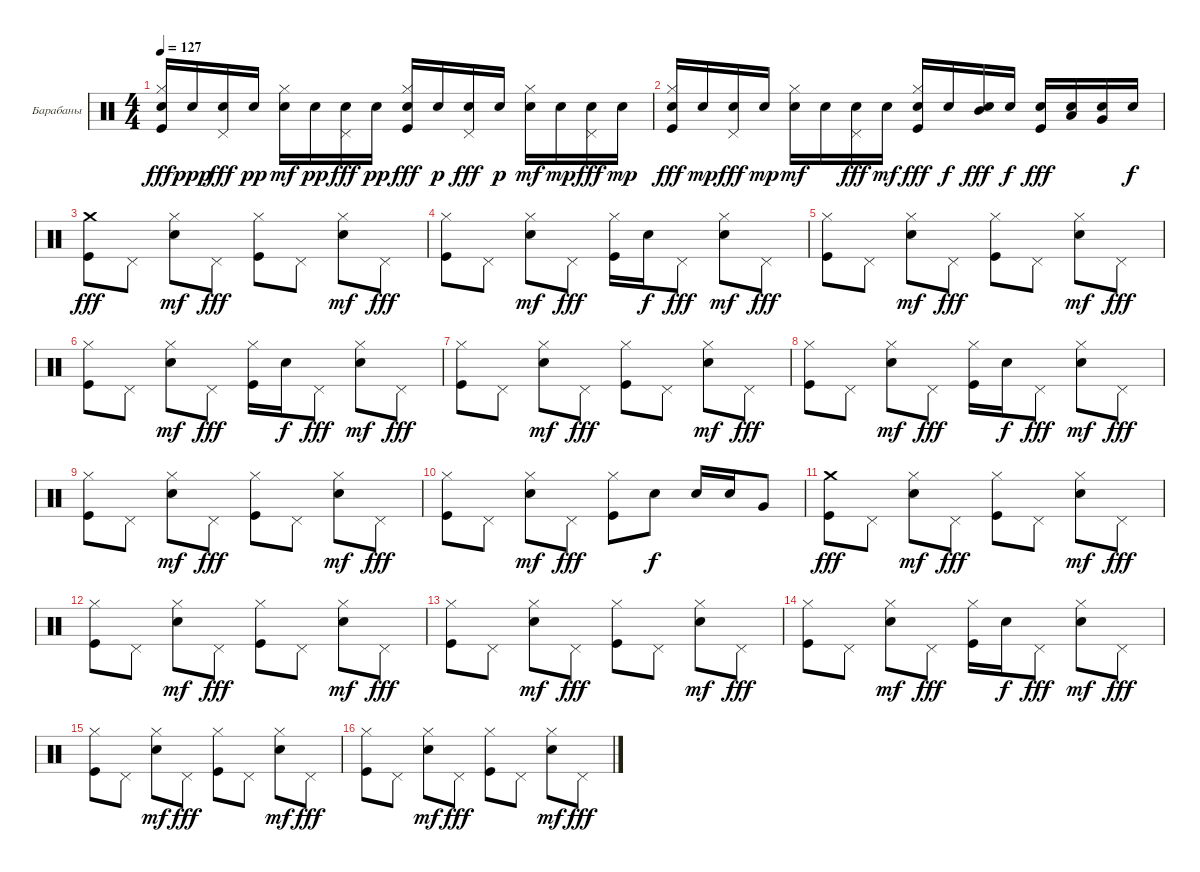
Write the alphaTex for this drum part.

\bracketExtendMode groupsimilarinstruments
\firstSystemTrackNameOrientation horizontal
\otherSystemsTrackNameOrientation horizontal
\track ("Ударные" "Барабаны") {instrument percussion}
\staff {score}
\articulation defaults
\ts (4 4)
\tempo 127
\clef neutral
\ks c
("Kick (hit)" "Hi-Hat (closed)" "Snare (hit) 2").16{dy fff} "Snare (hit) 2".16{dy ppp} ("Pedal Hi-Hat (hit)" "Snare (hit) 2").16{dy fff} "Snare (hit) 2".16{dy pp} ("Hi-Hat (closed)" "Snare (hit) 2").16{dy mf} "Snare (hit) 2".16{dy pp} ("Pedal Hi-Hat (hit)" "Snare (hit) 2").16{dy fff} "Snare (hit) 2".16{dy pp} ("Kick (hit)" "Hi-Hat (closed)" "Snare (hit) 2").16{dy fff} "Snare (hit) 2".16{dy p} ("Pedal Hi-Hat (hit)" "Snare (hit) 2").16{dy fff} "Snare (hit) 2".16{dy p} ("Hi-Hat (closed)" "Snare (hit) 2").16{dy mf} "Snare (hit) 2".16{dy mp} ("Pedal Hi-Hat (hit)" "Snare (hit) 2").16{dy fff} "Snare (hit) 2".16{dy mp} |
("Kick (hit)" "Hi-Hat (closed)" "Snare (hit) 2").16{dy fff} "Snare (hit) 2".16{dy mp} ("Pedal Hi-Hat (hit)" "Snare (hit) 2").16{dy fff} "Snare (hit) 2".16{dy mp} ("Hi-Hat (closed)" "Snare (hit) 2").16{dy mf} "Snare (hit) 2".16 ("Pedal Hi-Hat (hit)" "Snare (hit) 2").16{dy fff} "Snare (hit) 2".16{dy mf} ("Kick (hit)" "Hi-Hat (closed)" "Snare (hit) 2").16{dy fff} "Snare (hit) 2".16{dy f} ("Mid Tom (hit)" "Snare (hit) 2").16{dy fff} "Snare (hit) 2".16{dy f} ("Kick (hit)" "Snare (hit) 2").16{dy fff} ("Low Tom (hit)" "Snare (hit) 2").16 ("Very Low Tom (hit)" "Snare (hit) 2").16 "Snare (hit) 2".16{dy f} |
("Kick (hit)" "Crash medium (hit)").8{dy fff} "Pedal Hi-Hat (hit)".8 ("Hi-Hat (closed)" "Snare (hit) 2").8{dy mf} "Pedal Hi-Hat (hit)".8{dy fff} ("Kick (hit)" "Hi-Hat (closed)").8 "Pedal Hi-Hat (hit)".8 ("Hi-Hat (closed)" "Snare (hit) 2").8{dy mf} "Pedal Hi-Hat (hit)".8{dy fff} |
("Kick (hit)" "Hi-Hat (closed)").8 "Pedal Hi-Hat (hit)".8 ("Hi-Hat (closed)" "Snare (hit) 2").8{dy mf} "Pedal Hi-Hat (hit)".8{dy fff} ("Kick (hit)" "Hi-Hat (closed)").16 "Snare (hit) 2".16{dy f} "Pedal Hi-Hat (hit)".8{dy fff} ("Hi-Hat (closed)" "Snare (hit) 2").8{dy mf} "Pedal Hi-Hat (hit)".8{dy fff} |
("Kick (hit)" "Hi-Hat (closed)").8 "Pedal Hi-Hat (hit)".8 ("Hi-Hat (closed)" "Snare (hit) 2").8{dy mf} "Pedal Hi-Hat (hit)".8{dy fff} ("Kick (hit)" "Hi-Hat (closed)").8 "Pedal Hi-Hat (hit)".8 ("Hi-Hat (closed)" "Snare (hit) 2").8{dy mf} "Pedal Hi-Hat (hit)".8{dy fff} |
("Kick (hit)" "Hi-Hat (closed)").8 "Pedal Hi-Hat (hit)".8 ("Hi-Hat (closed)" "Snare (hit) 2").8{dy mf} "Pedal Hi-Hat (hit)".8{dy fff} ("Kick (hit)" "Hi-Hat (closed)").16 "Snare (hit) 2".16{dy f} "Pedal Hi-Hat (hit)".8{dy fff} ("Hi-Hat (closed)" "Snare (hit) 2").8{dy mf} "Pedal Hi-Hat (hit)".8{dy fff} |
("Kick (hit)" "Hi-Hat (closed)").8 "Pedal Hi-Hat (hit)".8 ("Hi-Hat (closed)" "Snare (hit) 2").8{dy mf} "Pedal Hi-Hat (hit)".8{dy fff} ("Kick (hit)" "Hi-Hat (closed)").8 "Pedal Hi-Hat (hit)".8 ("Hi-Hat (closed)" "Snare (hit) 2").8{dy mf} "Pedal Hi-Hat (hit)".8{dy fff} |
("Kick (hit)" "Hi-Hat (closed)").8 "Pedal Hi-Hat (hit)".8 ("Hi-Hat (closed)" "Snare (hit) 2").8{dy mf} "Pedal Hi-Hat (hit)".8{dy fff} ("Kick (hit)" "Hi-Hat (closed)").16 "Snare (hit) 2".16{dy f} "Pedal Hi-Hat (hit)".8{dy fff} ("Hi-Hat (closed)" "Snare (hit) 2").8{dy mf} "Pedal Hi-Hat (hit)".8{dy fff} |
("Kick (hit)" "Hi-Hat (closed)").8 "Pedal Hi-Hat (hit)".8 ("Hi-Hat (closed)" "Snare (hit) 2").8{dy mf} "Pedal Hi-Hat (hit)".8{dy fff} ("Kick (hit)" "Hi-Hat (closed)").8 "Pedal Hi-Hat (hit)".8 ("Hi-Hat (closed)" "Snare (hit) 2").8{dy mf} "Pedal Hi-Hat (hit)".8{dy fff} |
("Kick (hit)" "Hi-Hat (closed)").8 "Pedal Hi-Hat (hit)".8 ("Hi-Hat (closed)" "Snare (hit) 2").8{dy mf} "Pedal Hi-Hat (hit)".8{dy fff} ("Kick (hit)" "Hi-Hat (closed)").8 "Snare (hit) 2".8{dy f} "Snare (hit) 2".16 "Snare (hit) 2".16 "Very Low Tom (hit)".8 |
("Kick (hit)" "Crash medium (hit)").8{dy fff} "Pedal Hi-Hat (hit)".8 ("Hi-Hat (closed)" "Snare (hit) 2").8{dy mf} "Pedal Hi-Hat (hit)".8{dy fff} ("Kick (hit)" "Hi-Hat (closed)").8 "Pedal Hi-Hat (hit)".8 ("Hi-Hat (closed)" "Snare (hit) 2").8{dy mf} "Pedal Hi-Hat (hit)".8{dy fff} |
("Kick (hit)" "Hi-Hat (closed)").8 "Pedal Hi-Hat (hit)".8 ("Hi-Hat (closed)" "Snare (hit) 2").8{dy mf} "Pedal Hi-Hat (hit)".8{dy fff} ("Kick (hit)" "Hi-Hat (closed)").8 "Pedal Hi-Hat (hit)".8 ("Hi-Hat (closed)" "Snare (hit) 2").8{dy mf} "Pedal Hi-Hat (hit)".8{dy fff} |
("Kick (hit)" "Hi-Hat (closed)").8 "Pedal Hi-Hat (hit)".8 ("Hi-Hat (closed)" "Snare (hit) 2").8{dy mf} "Pedal Hi-Hat (hit)".8{dy fff} ("Kick (hit)" "Hi-Hat (closed)").8 "Pedal Hi-Hat (hit)".8 ("Hi-Hat (closed)" "Snare (hit) 2").8{dy mf} "Pedal Hi-Hat (hit)".8{dy fff} |
("Kick (hit)" "Hi-Hat (closed)").8 "Pedal Hi-Hat (hit)".8 ("Hi-Hat (closed)" "Snare (hit) 2").8{dy mf} "Pedal Hi-Hat (hit)".8{dy fff} ("Kick (hit)" "Hi-Hat (closed)").16 "Snare (hit) 2".16{dy f} "Pedal Hi-Hat (hit)".8{dy fff} ("Hi-Hat (closed)" "Snare (hit) 2").8{dy mf} "Pedal Hi-Hat (hit)".8{dy fff} |
("Kick (hit)" "Hi-Hat (closed)").8 "Pedal Hi-Hat (hit)".8 ("Hi-Hat (closed)" "Snare (hit) 2").8{dy mf} "Pedal Hi-Hat (hit)".8{dy fff} ("Kick (hit)" "Hi-Hat (closed)").8 "Pedal Hi-Hat (hit)".8 ("Hi-Hat (closed)" "Snare (hit) 2").8{dy mf} "Pedal Hi-Hat (hit)".8{dy fff} |
("Kick (hit)" "Hi-Hat (closed)").8 "Pedal Hi-Hat (hit)".8 ("Hi-Hat (closed)" "Snare (hit) 2").8{dy mf} "Pedal Hi-Hat (hit)".8{dy fff} ("Kick (hit)" "Hi-Hat (closed)").8 "Pedal Hi-Hat (hit)".8 ("Hi-Hat (closed)" "Snare (hit) 2").8{dy mf} "Pedal Hi-Hat (hit)".8{dy fff}
